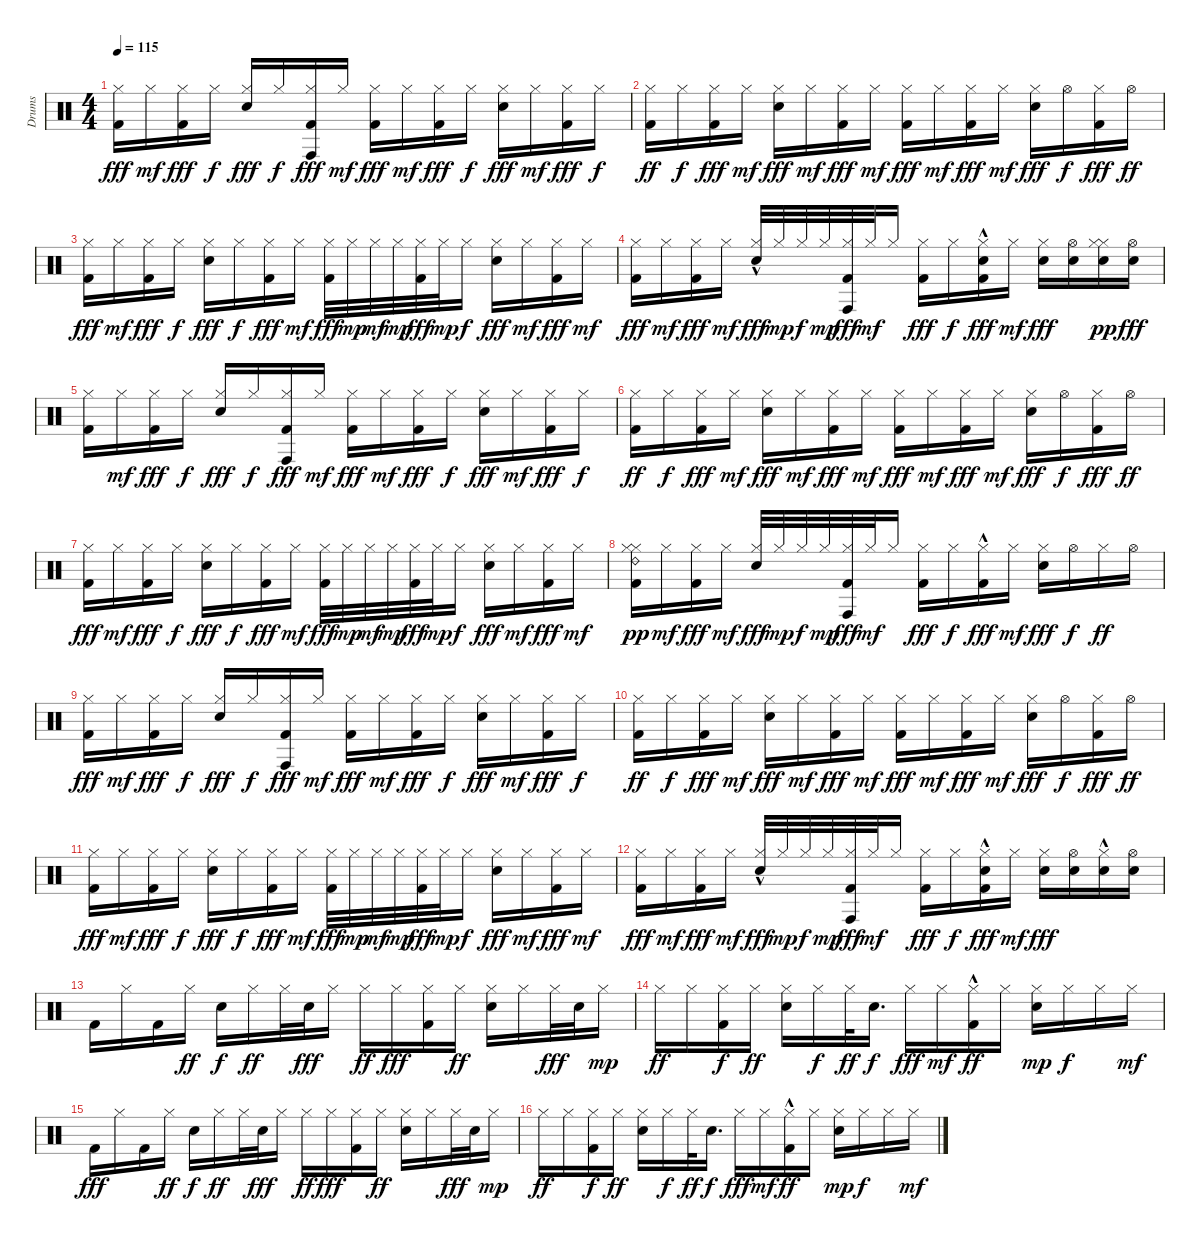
\track ("Drums" "Drums") {instrument percussion}
\staff {score}
\articulation defaults
\ts (4 4)
\tempo 115
\clef neutral
\ks c
("Hi-Hat (closed)" "Kick (hit) 2").16{dy fff} "Hi-Hat (closed)".16{dy mf} ("Hi-Hat (closed)" "Kick (hit) 2").16{dy fff} "Hi-Hat (closed)".16{dy f} ("Hi-Hat (closed)" "Snare (hit) 2").16{dy fff} "Hi-Hat (closed)".16{dy f} ("Hi-Hat (closed)" "Conga high (hit)" "Kick (hit) 2").16{dy fff} "Hi-Hat (closed)".16{dy mf} ("Hi-Hat (closed)" "Kick (hit) 2").16{dy fff} "Hi-Hat (closed)".16{dy mf} ("Hi-Hat (closed)" "Kick (hit) 2").16{dy fff} "Hi-Hat (closed)".16{dy f} ("Hi-Hat (closed)" "Snare (hit) 2").16{dy fff} "Hi-Hat (closed)".16{dy mf} ("Hi-Hat (closed)" "Kick (hit) 2").16{dy fff} "Hi-Hat (closed)".16{dy f} |
("Hi-Hat (closed)" "Kick (hit) 2").16{dy ff} "Hi-Hat (closed)".16{dy f} ("Hi-Hat (closed)" "Kick (hit) 2").16{dy fff} "Hi-Hat (closed)".16{dy mf} ("Hi-Hat (closed)" "Snare (hit) 2").16{dy fff} "Hi-Hat (closed)".16{dy mf} ("Hi-Hat (closed)" "Kick (hit) 2").16{dy fff} "Hi-Hat (closed)".16{dy mf} ("Hi-Hat (closed)" "Kick (hit) 2").16{dy fff} "Hi-Hat (closed)".16{dy mf} ("Hi-Hat (closed)" "Kick (hit) 2").16{dy fff} "Hi-Hat (closed)".16{dy mf} ("Hi-Hat (closed)" "Snare (hit) 2").16{dy fff} "Hi-Hat (open)".16{dy f} ("Hi-Hat (closed)" "Kick (hit) 2").16{dy fff} "Hi-Hat (open)".16{dy ff} |
("Hi-Hat (closed)" "Kick (hit) 2").16{dy fff} "Hi-Hat (closed)".16{dy mf} ("Hi-Hat (closed)" "Kick (hit) 2").16{dy fff} "Hi-Hat (closed)".16{dy f} ("Hi-Hat (closed)" "Snare (hit) 2").16{dy fff} "Hi-Hat (closed)".16{dy f} ("Hi-Hat (closed)" "Kick (hit) 2").16{dy fff} "Hi-Hat (closed)".16{dy mf} ("Hi-Hat (closed)" "Kick (hit) 2").32{dy fff} "Hi-Hat (closed)".32{dy mp} "Hi-Hat (closed)".32{dy mf} "Hi-Hat (closed)".32{dy mp} ("Hi-Hat (closed)" "Kick (hit) 2").32{dy fff} "Hi-Hat (closed)".32{dy mp} "Hi-Hat (closed)".16{dy f} ("Hi-Hat (closed)" "Snare (hit) 2").16{dy fff} "Hi-Hat (closed)".16{dy mf} ("Hi-Hat (closed)" "Kick (hit) 2").16{dy fff} "Hi-Hat (closed)".16{dy mf} |
("Hi-Hat (closed)" "Kick (hit) 2").16{dy fff} "Hi-Hat (closed)".16{dy mf} ("Hi-Hat (closed)" "Kick (hit) 2").16{dy fff} "Hi-Hat (closed)".16{dy mf} ("Hi-Hat (closed)" "Snare (hit) 2"{hac}).32{dy fff} "Hi-Hat (closed)".32{dy mp} "Hi-Hat (closed)".32{dy f} "Hi-Hat (closed)".32{dy mp} ("Hi-Hat (closed)" "Conga high (hit)" "Kick (hit) 2").32{dy fff} "Hi-Hat (closed)".32{dy mf} "Hi-Hat (closed)".16 ("Hi-Hat (closed)" "Kick (hit) 2").16{dy fff} "Hi-Hat (closed)".16{dy f} ("Hi-Hat (closed)" "Snare (hit) 2" "Kick (hit) 2"{hac}).16{dy fff} "Hi-Hat (closed)".16{dy mf} ("Hi-Hat (closed)" "Snare (hit) 2").16{dy fff} ("Hi-Hat (open)" "Snare (hit) 2").16 ("Hi-Hat (closed)" "Hi-Hat (closed)" "Snare (hit) 2").16{dy pp} ("Hi-Hat (open)" "Snare (hit) 2").16{dy fff} |
("Hi-Hat (closed)" "Kick (hit) 2").16 "Hi-Hat (closed)".16{dy mf} ("Hi-Hat (closed)" "Kick (hit) 2").16{dy fff} "Hi-Hat (closed)".16{dy f} ("Hi-Hat (closed)" "Snare (hit) 2").16{dy fff} "Hi-Hat (closed)".16{dy f} ("Hi-Hat (closed)" "Conga high (hit)" "Kick (hit) 2").16{dy fff} "Hi-Hat (closed)".16{dy mf} ("Hi-Hat (closed)" "Kick (hit) 2").16{dy fff} "Hi-Hat (closed)".16{dy mf} ("Hi-Hat (closed)" "Kick (hit) 2").16{dy fff} "Hi-Hat (closed)".16{dy f} ("Hi-Hat (closed)" "Snare (hit) 2").16{dy fff} "Hi-Hat (closed)".16{dy mf} ("Hi-Hat (closed)" "Kick (hit) 2").16{dy fff} "Hi-Hat (closed)".16{dy f} |
("Hi-Hat (closed)" "Kick (hit) 2").16{dy ff} "Hi-Hat (closed)".16{dy f} ("Hi-Hat (closed)" "Kick (hit) 2").16{dy fff} "Hi-Hat (closed)".16{dy mf} ("Hi-Hat (closed)" "Snare (hit) 2").16{dy fff} "Hi-Hat (closed)".16{dy mf} ("Hi-Hat (closed)" "Kick (hit) 2").16{dy fff} "Hi-Hat (closed)".16{dy mf} ("Hi-Hat (closed)" "Kick (hit) 2").16{dy fff} "Hi-Hat (closed)".16{dy mf} ("Hi-Hat (closed)" "Kick (hit) 2").16{dy fff} "Hi-Hat (closed)".16{dy mf} ("Hi-Hat (closed)" "Snare (hit) 2").16{dy fff} "Hi-Hat (open)".16{dy f} ("Hi-Hat (closed)" "Kick (hit) 2").16{dy fff} "Hi-Hat (open)".16{dy ff} |
("Hi-Hat (closed)" "Kick (hit) 2").16{dy fff} "Hi-Hat (closed)".16{dy mf} ("Hi-Hat (closed)" "Kick (hit) 2").16{dy fff} "Hi-Hat (closed)".16{dy f} ("Hi-Hat (closed)" "Snare (hit) 2").16{dy fff} "Hi-Hat (closed)".16{dy f} ("Hi-Hat (closed)" "Kick (hit) 2").16{dy fff} "Hi-Hat (closed)".16{dy mf} ("Hi-Hat (closed)" "Kick (hit) 2").32{dy fff} "Hi-Hat (closed)".32{dy mp} "Hi-Hat (closed)".32{dy mf} "Hi-Hat (closed)".32{dy mp} ("Hi-Hat (closed)" "Kick (hit) 2").32{dy fff} "Hi-Hat (closed)".32{dy mp} "Hi-Hat (closed)".16{dy f} ("Hi-Hat (closed)" "Snare (hit) 2").16{dy fff} "Hi-Hat (closed)".16{dy mf} ("Hi-Hat (closed)" "Kick (hit) 2").16{dy fff} "Hi-Hat (closed)".16{dy mf} |
("Kick (hit) 2" "Hi-Hat (closed)" "Hi-Hat (closed)" "Ride (bell) 2").16{dy pp} "Hi-Hat (closed)".16{dy mf} ("Hi-Hat (closed)" "Kick (hit) 2").16{dy fff} "Hi-Hat (closed)".16{dy mf} ("Hi-Hat (closed)" "Snare (hit) 2").32{dy fff} "Hi-Hat (closed)".32{dy mp} "Hi-Hat (closed)".32{dy f} "Hi-Hat (closed)".32{dy mp} ("Hi-Hat (closed)" "Conga high (hit)" "Kick (hit) 2").32{dy fff} "Hi-Hat (closed)".32{dy mf} "Hi-Hat (closed)".16 ("Hi-Hat (closed)" "Kick (hit) 2").16{dy fff} "Hi-Hat (closed)".16{dy f} ("Hi-Hat (closed)" "Kick (hit) 2"{hac}).16{dy fff} "Hi-Hat (closed)".16{dy mf} ("Hi-Hat (closed)" "Snare (hit) 2").16{dy fff} "Hi-Hat (open)".16{dy f} "Hi-Hat (closed)".16{dy ff} "Hi-Hat (open)".16 |
("Hi-Hat (closed)" "Kick (hit) 2").16{dy fff} "Hi-Hat (closed)".16{dy mf} ("Hi-Hat (closed)" "Kick (hit) 2").16{dy fff} "Hi-Hat (closed)".16{dy f} ("Hi-Hat (closed)" "Snare (hit) 2").16{dy fff} "Hi-Hat (closed)".16{dy f} ("Hi-Hat (closed)" "Conga high (hit)" "Kick (hit) 2").16{dy fff} "Hi-Hat (closed)".16{dy mf} ("Hi-Hat (closed)" "Kick (hit) 2").16{dy fff} "Hi-Hat (closed)".16{dy mf} ("Hi-Hat (closed)" "Kick (hit) 2").16{dy fff} "Hi-Hat (closed)".16{dy f} ("Hi-Hat (closed)" "Snare (hit) 2").16{dy fff} "Hi-Hat (closed)".16{dy mf} ("Hi-Hat (closed)" "Kick (hit) 2").16{dy fff} "Hi-Hat (closed)".16{dy f} |
("Hi-Hat (closed)" "Kick (hit) 2").16{dy ff} "Hi-Hat (closed)".16{dy f} ("Hi-Hat (closed)" "Kick (hit) 2").16{dy fff} "Hi-Hat (closed)".16{dy mf} ("Hi-Hat (closed)" "Snare (hit) 2").16{dy fff} "Hi-Hat (closed)".16{dy mf} ("Hi-Hat (closed)" "Kick (hit) 2").16{dy fff} "Hi-Hat (closed)".16{dy mf} ("Hi-Hat (closed)" "Kick (hit) 2").16{dy fff} "Hi-Hat (closed)".16{dy mf} ("Hi-Hat (closed)" "Kick (hit) 2").16{dy fff} "Hi-Hat (closed)".16{dy mf} ("Hi-Hat (closed)" "Snare (hit) 2").16{dy fff} "Hi-Hat (open)".16{dy f} ("Hi-Hat (closed)" "Kick (hit) 2").16{dy fff} "Hi-Hat (open)".16{dy ff} |
("Hi-Hat (closed)" "Kick (hit) 2").16{dy fff} "Hi-Hat (closed)".16{dy mf} ("Hi-Hat (closed)" "Kick (hit) 2").16{dy fff} "Hi-Hat (closed)".16{dy f} ("Hi-Hat (closed)" "Snare (hit) 2").16{dy fff} "Hi-Hat (closed)".16{dy f} ("Hi-Hat (closed)" "Kick (hit) 2").16{dy fff} "Hi-Hat (closed)".16{dy mf} ("Hi-Hat (closed)" "Kick (hit) 2").32{dy fff} "Hi-Hat (closed)".32{dy mp} "Hi-Hat (closed)".32{dy mf} "Hi-Hat (closed)".32{dy mp} ("Hi-Hat (closed)" "Kick (hit) 2").32{dy fff} "Hi-Hat (closed)".32{dy mp} "Hi-Hat (closed)".16{dy f} ("Hi-Hat (closed)" "Snare (hit) 2").16{dy fff} "Hi-Hat (closed)".16{dy mf} ("Hi-Hat (closed)" "Kick (hit) 2").16{dy fff} "Hi-Hat (closed)".16{dy mf} |
("Hi-Hat (closed)" "Kick (hit) 2").16{dy fff} "Hi-Hat (closed)".16{dy mf} ("Hi-Hat (closed)" "Kick (hit) 2").16{dy fff} "Hi-Hat (closed)".16{dy mf} ("Hi-Hat (closed)" "Snare (hit) 2"{hac}).32{dy fff} "Hi-Hat (closed)".32{dy mp} "Hi-Hat (closed)".32{dy f} "Hi-Hat (closed)".32{dy mp} ("Hi-Hat (closed)" "Conga high (hit)" "Kick (hit) 2").32{dy fff} "Hi-Hat (closed)".32{dy mf} "Hi-Hat (closed)".16 ("Hi-Hat (closed)" "Kick (hit) 2").16{dy fff} "Hi-Hat (closed)".16{dy f} ("Hi-Hat (closed)" "Snare (hit) 2" "Kick (hit) 2"{hac}).16{dy fff} "Hi-Hat (closed)".16{dy mf} ("Hi-Hat (closed)" "Snare (hit) 2").16{dy fff} ("Hi-Hat (open)" "Snare (hit) 2").16 ("Hi-Hat (closed)"{hac} "Snare (hit) 2").16 ("Hi-Hat (open)" "Snare (hit) 2").16 |
"Kick (hit) 2".16 "Hi-Hat (closed)".16 "Kick (hit) 2".16 "Hi-Hat (closed)".16{dy ff} "Snare (hit) 2".16{dy f} "Hi-Hat (closed)".16{dy ff} "Hi-Hat (closed)".32 "Snare (hit) 2".32{dy fff} "Hi-Hat (closed)".16 "Hi-Hat (closed)".16{dy ff} "Hi-Hat (closed)".16{dy fff} ("Kick (hit) 2" "Hi-Hat (closed)").16 "Hi-Hat (closed)".16{dy ff} ("Snare (hit) 2" "Hi-Hat (closed)").16 "Hi-Hat (closed)".16 "Hi-Hat (closed)".32{dy fff} "Snare (hit) 2".32 "Hi-Hat (closed)".16{dy mp} |
"Hi-Hat (closed)".16{dy ff} "Hi-Hat (closed)".16 ("Kick (hit) 2" "Hi-Hat (closed)").16{dy f} "Hi-Hat (closed)".16{dy ff} ("Snare (hit) 2" "Hi-Hat (closed)").16 "Hi-Hat (closed)".16{dy f} "Hi-Hat (closed)".32{dy ff} "Snare (hit) 2".16{d dy f} "Hi-Hat (closed)".16{dy fff} "Hi-Hat (closed)".16{dy mf} ("Kick (hit) 2"{hac} "Hi-Hat (closed)").16{dy ff} "Hi-Hat (closed)".16 ("Snare (hit) 2" "Hi-Hat (closed)").16{dy mp} "Hi-Hat (closed)".16{dy f} "Hi-Hat (closed)".16 "Hi-Hat (closed)".16{dy mf} |
"Kick (hit) 2".16{dy fff} "Hi-Hat (closed)".16 "Kick (hit) 2".16 "Hi-Hat (closed)".16{dy ff} "Snare (hit) 2".16{dy f} "Hi-Hat (closed)".16{dy ff} "Hi-Hat (closed)".32 "Snare (hit) 2".32{dy fff} "Hi-Hat (closed)".16 "Hi-Hat (closed)".16{dy ff} "Hi-Hat (closed)".16{dy fff} ("Kick (hit) 2" "Hi-Hat (closed)").16 "Hi-Hat (closed)".16{dy ff} ("Snare (hit) 2" "Hi-Hat (closed)").16 "Hi-Hat (closed)".16 "Hi-Hat (closed)".32{dy fff} "Snare (hit) 2".32 "Hi-Hat (closed)".16{dy mp} |
"Hi-Hat (closed)".16{dy ff} "Hi-Hat (closed)".16 ("Kick (hit) 2" "Hi-Hat (closed)").16{dy f} "Hi-Hat (closed)".16{dy ff} ("Snare (hit) 2" "Hi-Hat (closed)").16 "Hi-Hat (closed)".16{dy f} "Hi-Hat (closed)".32{dy ff} "Snare (hit) 2".16{d dy f} "Hi-Hat (closed)".16{dy fff} "Hi-Hat (closed)".16{dy mf} ("Kick (hit) 2"{hac} "Hi-Hat (closed)").16{dy ff} "Hi-Hat (closed)".16 ("Snare (hit) 2" "Hi-Hat (closed)").16{dy mp} "Hi-Hat (closed)".16{dy f} "Hi-Hat (closed)".16 "Hi-Hat (closed)".16{dy mf}
